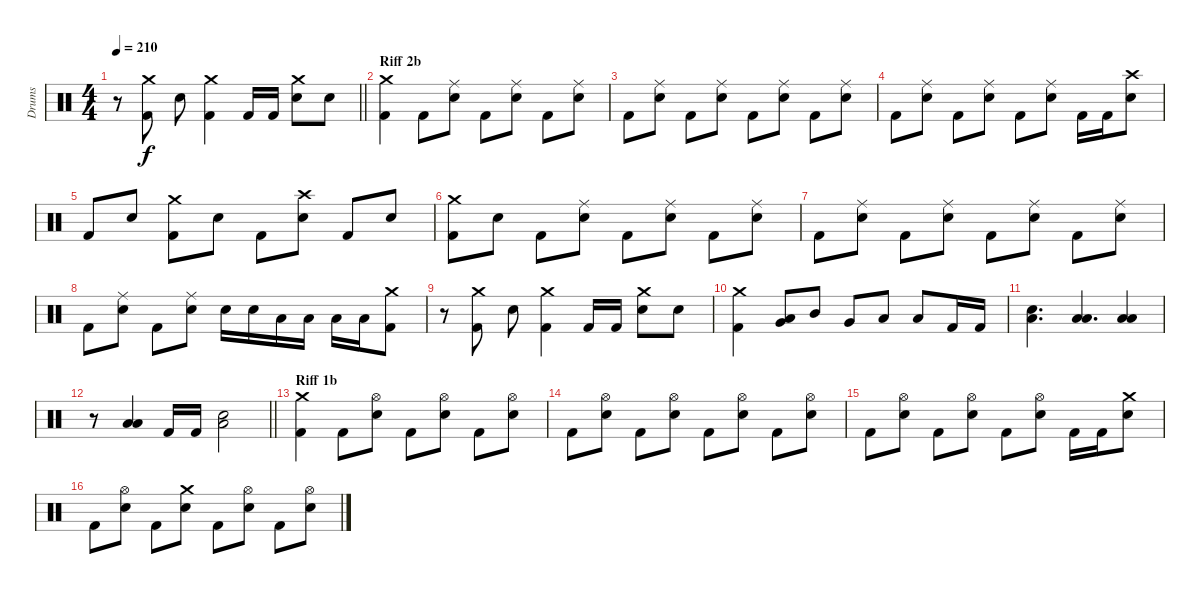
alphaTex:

\track ("Drums" "Drums") {instrument percussion}
\staff {score}
\articulation defaults
\ts (4 4)
\tempo 210
\clef neutral
\barLineRight lightlight
\ks c
r.8{dy f} ("Kick (hit) 2" "Crash medium (hit)").8 "Electric Snare (hit)".8 ("Kick (hit) 2" "Crash medium (hit)").4 "Kick (hit) 2".16 "Kick (hit) 2".16 ("Electric Snare (hit)" "Crash medium (hit)").8 "Electric Snare (hit)".8 |
\section ("" "Riff 2b")
("Crash medium (hit)" "Kick (hit) 2").4 "Kick (hit) 2".8 ("Electric Snare (hit)" "Ride (middle)").8 "Kick (hit) 2".8 ("Electric Snare (hit)" "Ride (middle)").8 "Kick (hit) 2".8 ("Electric Snare (hit)" "Ride (middle)").8 |
"Kick (hit) 2".8 ("Electric Snare (hit)" "Ride (middle)").8 "Kick (hit) 2".8 ("Electric Snare (hit)" "Ride (middle)").8 "Kick (hit) 2".8 ("Electric Snare (hit)" "Ride (middle)").8 "Kick (hit) 2".8 ("Electric Snare (hit)" "Ride (middle)").8 |
"Kick (hit) 2".8 ("Electric Snare (hit)" "Ride (middle)").8 "Kick (hit) 2".8 ("Electric Snare (hit)" "Ride (middle)").8 "Kick (hit) 2".8 ("Electric Snare (hit)" "Ride (middle)").8 "Kick (hit) 2".16 "Kick (hit) 2".16 ("Electric Snare (hit)" "Crash high (hit)").8 |
"Kick (hit) 2".8 "Electric Snare (hit)".8 ("Crash medium (hit)" "Kick (hit) 2").8 "Electric Snare (hit)".8 "Kick (hit) 2".8 ("Crash high (hit)" "Electric Snare (hit)").8 "Kick (hit) 2".8 "Electric Snare (hit)".8 |
("Kick (hit) 2" "Crash medium (hit)").8 "Electric Snare (hit)".8 "Kick (hit) 2".8 ("Electric Snare (hit)" "Ride (middle)").8 "Kick (hit) 2".8 ("Electric Snare (hit)" "Ride (middle)").8 "Kick (hit) 2".8 ("Electric Snare (hit)" "Ride (middle)").8 |
"Kick (hit) 2".8 ("Electric Snare (hit)" "Ride (middle)").8 "Kick (hit) 2".8 ("Electric Snare (hit)" "Ride (middle)").8 "Kick (hit) 2".8 ("Electric Snare (hit)" "Ride (middle)").8 "Kick (hit) 2".8 ("Electric Snare (hit)" "Ride (middle)").8 |
"Kick (hit) 2".8 ("Electric Snare (hit)" "Ride (middle)").8 "Kick (hit) 2".8 ("Electric Snare (hit)" "Ride (middle)").8 "Electric Snare (hit)".16 "Electric Snare (hit)".16 "Low Tom (hit)".16 "Low Tom (hit)".16 "Low Floor Tom (hit)".16 "Low Floor Tom (hit)".16 ("Kick (hit) 2" "Crash medium (hit)").8 |
r.8 ("Crash medium (hit)" "Kick (hit) 2").8 "Electric Snare (hit)".8 ("Crash medium (hit)" "Kick (hit) 2").4 "Kick (hit) 2".16 "Kick (hit) 2".16 ("Electric Snare (hit)" "Crash medium (hit)").8 "Electric Snare (hit)".8 |
("Crash medium (hit)" "Kick (hit) 2").4 ("Very Low Tom (hit)" "Low Floor Tom (hit)").8 "Mid Tom (hit)".8 "Very Low Tom (hit)".8 "Low Floor Tom (hit)".8 "Low Floor Tom (hit)".8 "Kick (hit) 2".16 "Kick (hit) 2".16 |
("Electric Snare (hit)" "Low Floor Tom (hit)").4{d} ("Low Tom (hit)" "Low Floor Tom (hit)").4{d} ("Low Tom (hit)" "Low Floor Tom (hit)").4 |
\barLineRight lightlight
r.8 ("Low Tom (hit)" "Low Floor Tom (hit)").4 "Kick (hit) 2".16 "Kick (hit) 2".16 ("Electric Snare (hit)" "Low Floor Tom (hit)").2 |
\section ("" "Riff 1b")
("Crash medium (hit)" "Kick (hit) 2").4 "Kick (hit) 2".8 ("Electric Snare (hit)" "Hi-Hat (open)").8 "Kick (hit) 2".8 ("Electric Snare (hit)" "Hi-Hat (open)").8 "Kick (hit) 2".8 ("Electric Snare (hit)" "Hi-Hat (open)").8 |
"Kick (hit) 2".8 ("Electric Snare (hit)" "Hi-Hat (open)").8 "Kick (hit) 2".8 ("Electric Snare (hit)" "Hi-Hat (open)").8 "Kick (hit) 2".8 ("Electric Snare (hit)" "Hi-Hat (open)").8 "Kick (hit) 2".8 ("Electric Snare (hit)" "Hi-Hat (open)").8 |
"Kick (hit) 2".8 ("Electric Snare (hit)" "Hi-Hat (open)").8 "Kick (hit) 2".8 ("Electric Snare (hit)" "Hi-Hat (open)").8 "Kick (hit) 2".8 ("Electric Snare (hit)" "Hi-Hat (open)").8 "Kick (hit) 2".16 "Kick (hit) 2".16 ("Electric Snare (hit)" "Crash medium (hit)").8 |
"Kick (hit) 2".8 ("Electric Snare (hit)" "Hi-Hat (open)").8 "Kick (hit) 2".8 ("Electric Snare (hit)" "Crash medium (hit)").8 "Kick (hit) 2".8 ("Electric Snare (hit)" "Hi-Hat (open)").8 "Kick (hit) 2".8 ("Electric Snare (hit)" "Hi-Hat (open)").8
